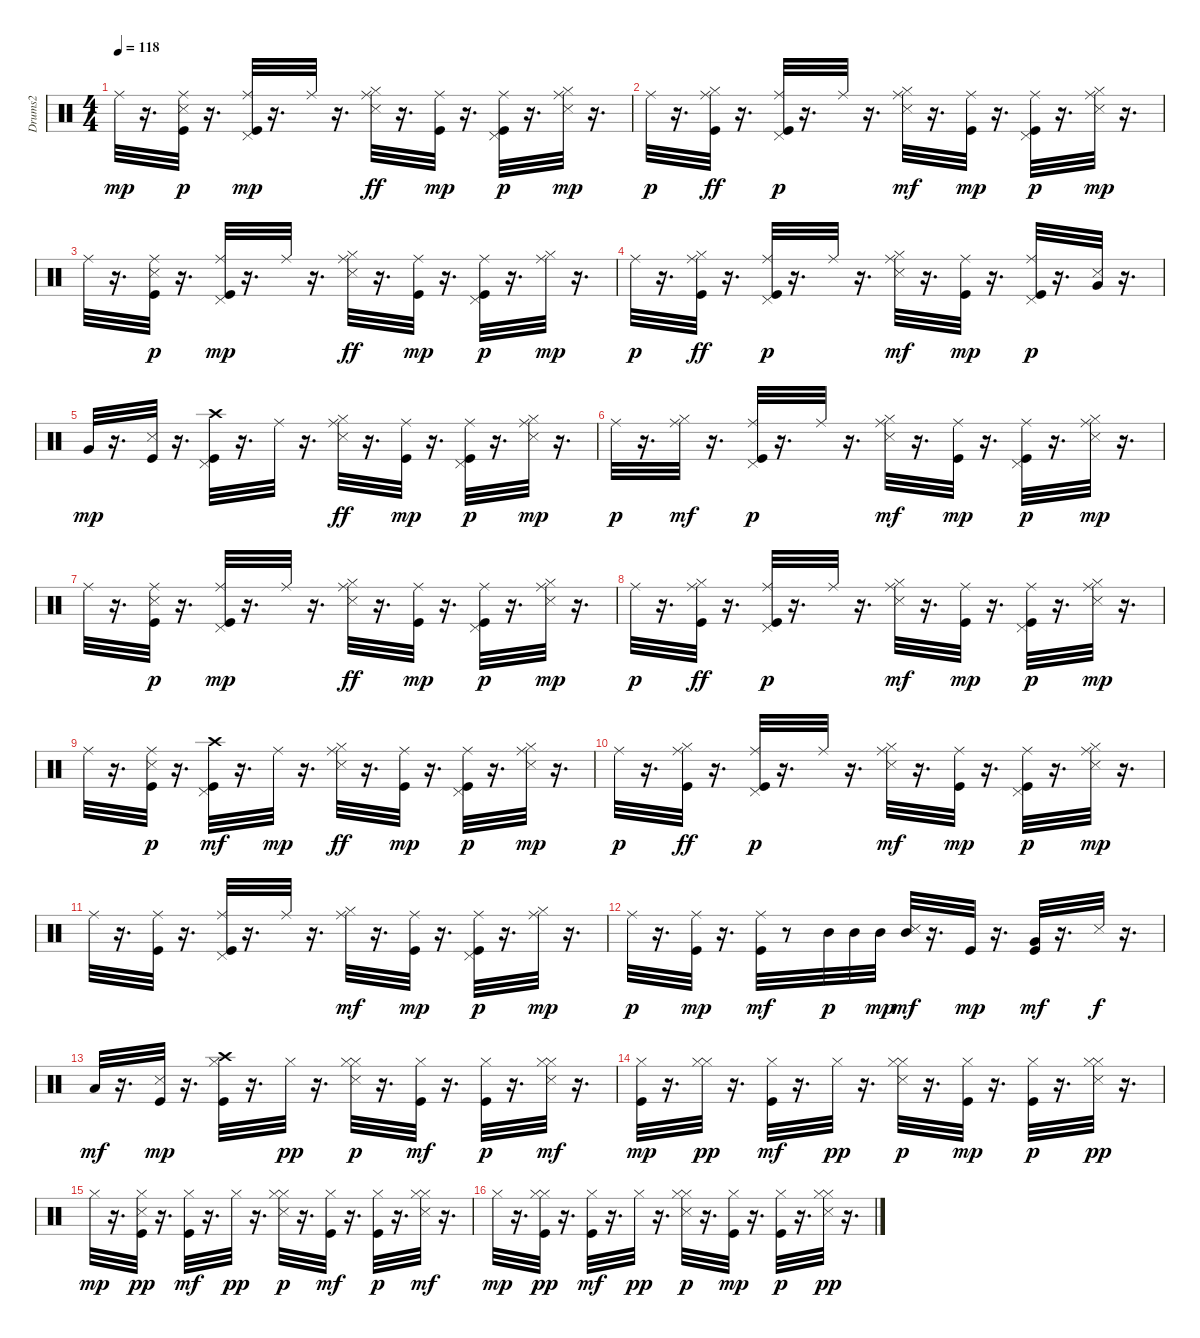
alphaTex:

\track ("Drums2" "Drums2") {instrument percussion}
\staff {score}
\articulation defaults
\ts (4 4)
\tempo 118
\clef neutral
\ks c "Ride (middle)".32{dy mp}
r.16{d} ("Kick (hit)" "Snare (side stick) 3" "Ride (middle)").32{dy p} r.16{d} ("Kick (hit)" "Pedal Hi-Hat (hit)" "Ride (middle)").32{dy mp} r.16{d} "Ride (middle)".32 r.16{d} ("Hi-Hat (closed)" "Snare (side stick) 3" "Ride (middle)").32{dy ff} r.16{d} ("Ride (middle)" "Kick (hit)").32{dy mp} r.16{d} ("Kick (hit)" "Pedal Hi-Hat (hit)" "Ride (middle)").32{dy p} r.16{d} ("Hi-Hat (closed)" "Snare (side stick) 3" "Ride (middle)").32{dy mp} r.16{d} |
"Ride (middle)".32{dy p} r.16{d} ("Hi-Hat (closed)" "Kick (hit)" "Ride (middle)").32{dy ff} r.16{d} ("Kick (hit)" "Pedal Hi-Hat (hit)" "Ride (middle)").32{dy p} r.16{d} "Ride (middle)".32 r.16{d} ("Hi-Hat (closed)" "Snare (side stick) 3" "Ride (middle)").32{dy mf} r.16{d} ("Ride (middle)" "Kick (hit)").32{dy mp} r.16{d} ("Kick (hit)" "Pedal Hi-Hat (hit)" "Ride (middle)").32{dy p} r.16{d} ("Hi-Hat (closed)" "Snare (side stick) 3" "Ride (middle)").32{dy mp} r.16{d} |
"Ride (middle)".32 r.16{d} ("Kick (hit)" "Snare (side stick) 3" "Ride (middle)").32{dy p} r.16{d} ("Kick (hit)" "Pedal Hi-Hat (hit)" "Ride (middle)").32{dy mp} r.16{d} "Ride (middle)".32 r.16{d} ("Hi-Hat (closed)" "Snare (side stick) 3" "Ride (middle)").32{dy ff} r.16{d} ("Ride (middle)" "Kick (hit)").32{dy mp} r.16{d} ("Kick (hit)" "Pedal Hi-Hat (hit)" "Ride (middle)").32{dy p} r.16{d} ("Ride (middle)" "Hi-Hat (closed)").32{dy mp} r.16{d} |
"Ride (middle)".32{dy p} r.16{d} ("Hi-Hat (closed)" "Kick (hit)" "Ride (middle)").32{dy ff} r.16{d} ("Kick (hit)" "Pedal Hi-Hat (hit)" "Ride (middle)").32{dy p} r.16{d} "Ride (middle)".32 r.16{d} ("Hi-Hat (closed)" "Snare (side stick) 3" "Ride (middle)").32{dy mf} r.16{d} ("Ride (middle)" "Kick (hit)").32{dy mp} r.16{d} ("Kick (hit)" "Pedal Hi-Hat (hit)" "Ride (middle)").32{dy p} r.16{d} ("Snare (side stick) 3" "Very Low Tom (hit)").32 r.16{d} |
"Very Low Tom (hit)".32{dy mp} r.16{d} ("Kick (hit)" "Snare (side stick) 3").32 r.16{d} ("Kick (hit)" "Pedal Hi-Hat (hit)" "Crash high (hit)").32 r.16{d} "Ride (middle)".32 r.16{d} ("Hi-Hat (closed)" "Snare (side stick) 3" "Ride (middle)").32{dy ff} r.16{d} ("Ride (middle)" "Kick (hit)").32{dy mp} r.16{d} ("Kick (hit)" "Pedal Hi-Hat (hit)" "Ride (middle)").32{dy p} r.16{d} ("Hi-Hat (closed)" "Snare (side stick) 3" "Ride (middle)").32{dy mp} r.16{d} |
"Ride (middle)".32{dy p} r.16{d} ("Ride (middle)" "Hi-Hat (closed)").32{dy mf} r.16{d} ("Kick (hit)" "Pedal Hi-Hat (hit)" "Ride (middle)").32{dy p} r.16{d} "Ride (middle)".32 r.16{d} ("Hi-Hat (closed)" "Snare (side stick) 3" "Ride (middle)").32{dy mf} r.16{d} ("Ride (middle)" "Kick (hit)").32{dy mp} r.16{d} ("Kick (hit)" "Pedal Hi-Hat (hit)" "Ride (middle)").32{dy p} r.16{d} ("Hi-Hat (closed)" "Snare (side stick) 3" "Ride (middle)").32{dy mp} r.16{d} |
"Ride (middle)".32 r.16{d} ("Kick (hit)" "Snare (side stick) 3" "Ride (middle)").32{dy p} r.16{d} ("Kick (hit)" "Pedal Hi-Hat (hit)" "Ride (middle)").32{dy mp} r.16{d} "Ride (middle)".32 r.16{d} ("Hi-Hat (closed)" "Snare (side stick) 3" "Ride (middle)").32{dy ff} r.16{d} ("Ride (middle)" "Kick (hit)").32{dy mp} r.16{d} ("Kick (hit)" "Pedal Hi-Hat (hit)" "Ride (middle)").32{dy p} r.16{d} ("Hi-Hat (closed)" "Snare (side stick) 3" "Ride (middle)").32{dy mp} r.16{d} |
"Ride (middle)".32{dy p} r.16{d} ("Hi-Hat (closed)" "Kick (hit)" "Ride (middle)").32{dy ff} r.16{d} ("Kick (hit)" "Pedal Hi-Hat (hit)" "Ride (middle)").32{dy p} r.16{d} "Ride (middle)".32 r.16{d} ("Hi-Hat (closed)" "Snare (side stick) 3" "Ride (middle)").32{dy mf} r.16{d} ("Ride (middle)" "Kick (hit)").32{dy mp} r.16{d} ("Kick (hit)" "Pedal Hi-Hat (hit)" "Ride (middle)").32{dy p} r.16{d} ("Hi-Hat (closed)" "Snare (side stick) 3" "Ride (middle)").32{dy mp} r.16{d} |
"Ride (middle)".32 r.16{d} ("Kick (hit)" "Snare (side stick) 3" "Ride (middle)").32{dy p} r.16{d} ("Kick (hit)" "Pedal Hi-Hat (hit)" "Crash high (hit)").32{dy mf} r.16{d} "Ride (middle)".32{dy mp} r.16{d} ("Hi-Hat (closed)" "Snare (side stick) 3" "Ride (middle)").32{dy ff} r.16{d} ("Ride (middle)" "Kick (hit)").32{dy mp} r.16{d} ("Kick (hit)" "Pedal Hi-Hat (hit)" "Ride (middle)").32{dy p} r.16{d} ("Hi-Hat (closed)" "Snare (side stick) 3" "Ride (middle)").32{dy mp} r.16{d} |
"Ride (middle)".32{dy p} r.16{d} ("Hi-Hat (closed)" "Kick (hit)" "Ride (middle)").32{dy ff} r.16{d} ("Kick (hit)" "Pedal Hi-Hat (hit)" "Ride (middle)").32{dy p} r.16{d} "Ride (middle)".32 r.16{d} ("Hi-Hat (closed)" "Snare (side stick) 3" "Ride (middle)").32{dy mf} r.16{d} ("Ride (middle)" "Kick (hit)").32{dy mp} r.16{d} ("Kick (hit)" "Pedal Hi-Hat (hit)" "Ride (middle)").32{dy p} r.16{d} ("Hi-Hat (closed)" "Snare (side stick) 3" "Ride (middle)").32{dy mp} r.16{d} |
"Ride (middle)".32 r.16{d} ("Ride (middle)" "Kick (hit)").32 r.16{d} ("Kick (hit)" "Pedal Hi-Hat (hit)" "Ride (middle)").32 r.16{d} "Ride (middle)".32 r.16{d} ("Ride (middle)" "Hi-Hat (closed)").32{dy mf} r.16{d} ("Ride (middle)" "Kick (hit)").32{dy mp} r.16{d} ("Kick (hit)" "Pedal Hi-Hat (hit)" "Ride (middle)").32{dy p} r.16{d} ("Ride (middle)" "Hi-Hat (closed)").32{dy mp} r.16{d} |
"Ride (middle)".32{dy p} r.16{d} ("Ride (middle)" "Kick (hit)").32{dy mp} r.16{d} ("Ride (middle)" "Kick (hit)").32{dy mf} r.8 "Mid Tom (hit)".32{dy p} "Mid Tom (hit)".32 "Mid Tom (hit)".32{dy mp} ("Snare (side stick) 3" "Mid Tom (hit)").32{dy mf} r.16{d} "Kick (hit)".32{dy mp} r.16{d} ("Kick (hit)" "Very Low Tom (hit)").32{dy mf} r.16{d} "Snare (side stick) 3".32{dy f} r.16{d} |
"Low Floor Tom (hit)".32{dy mf} r.16{d} ("Kick (hit)" "Snare (side stick) 3").32{dy mp} r.16{d} ("Kick (hit)" "Hi-Hat (closed)" "Crash high (hit)").32 r.16{d} "Hi-Hat (closed)".32{dy pp} r.16{d} ("Hi-Hat (closed)" "Snare (side stick) 3" "Hi-Hat (closed)").32{dy p} r.16{d} ("Kick (hit)" "Hi-Hat (closed)").32{dy mf} r.16{d} ("Kick (hit)" "Hi-Hat (closed)").32{dy p} r.16{d} ("Hi-Hat (closed)" "Snare (side stick) 3" "Hi-Hat (closed)").32{dy mf} r.16{d} |
("Kick (hit)" "Hi-Hat (closed)").32{dy mp} r.16{d} ("Hi-Hat (closed)" "Hi-Hat (closed)").32{dy pp} r.16{d} ("Kick (hit)" "Hi-Hat (closed)").32{dy mf} r.16{d} "Hi-Hat (closed)".32{dy pp} r.16{d} ("Hi-Hat (closed)" "Snare (side stick) 3" "Hi-Hat (closed)").32{dy p} r.16{d} ("Kick (hit)" "Hi-Hat (closed)").32{dy mp} r.16{d} ("Kick (hit)" "Hi-Hat (closed)").32{dy p} r.16{d} ("Hi-Hat (closed)" "Snare (side stick) 3" "Hi-Hat (closed)").32{dy pp} r.16{d} |
"Hi-Hat (closed)".32{dy mp} r.16{d} ("Kick (hit)" "Snare (side stick) 3" "Hi-Hat (closed)").32{dy pp} r.16{d} ("Kick (hit)" "Hi-Hat (closed)").32{dy mf} r.16{d} "Hi-Hat (closed)".32{dy pp} r.16{d} ("Hi-Hat (closed)" "Snare (side stick) 3" "Hi-Hat (closed)").32{dy p} r.16{d} ("Kick (hit)" "Hi-Hat (closed)").32{dy mf} r.16{d} ("Kick (hit)" "Hi-Hat (closed)").32{dy p} r.16{d} ("Hi-Hat (closed)" "Snare (side stick) 3" "Hi-Hat (closed)").32{dy mf} r.16{d} |
"Hi-Hat (closed)".32{dy mp} r.16{d} ("Hi-Hat (closed)" "Kick (hit)" "Hi-Hat (closed)").32{dy pp} r.16{d} ("Kick (hit)" "Hi-Hat (closed)").32{dy mf} r.16{d} "Hi-Hat (closed)".32{dy pp} r.16{d} ("Hi-Hat (closed)" "Snare (side stick) 3" "Hi-Hat (closed)").32{dy p} r.16{d} ("Kick (hit)" "Hi-Hat (closed)").32{dy mp} r.16{d} ("Kick (hit)" "Hi-Hat (closed)").32{dy p} r.16{d} ("Hi-Hat (closed)" "Snare (side stick) 3" "Hi-Hat (closed)").32{dy pp} r.16{d}
